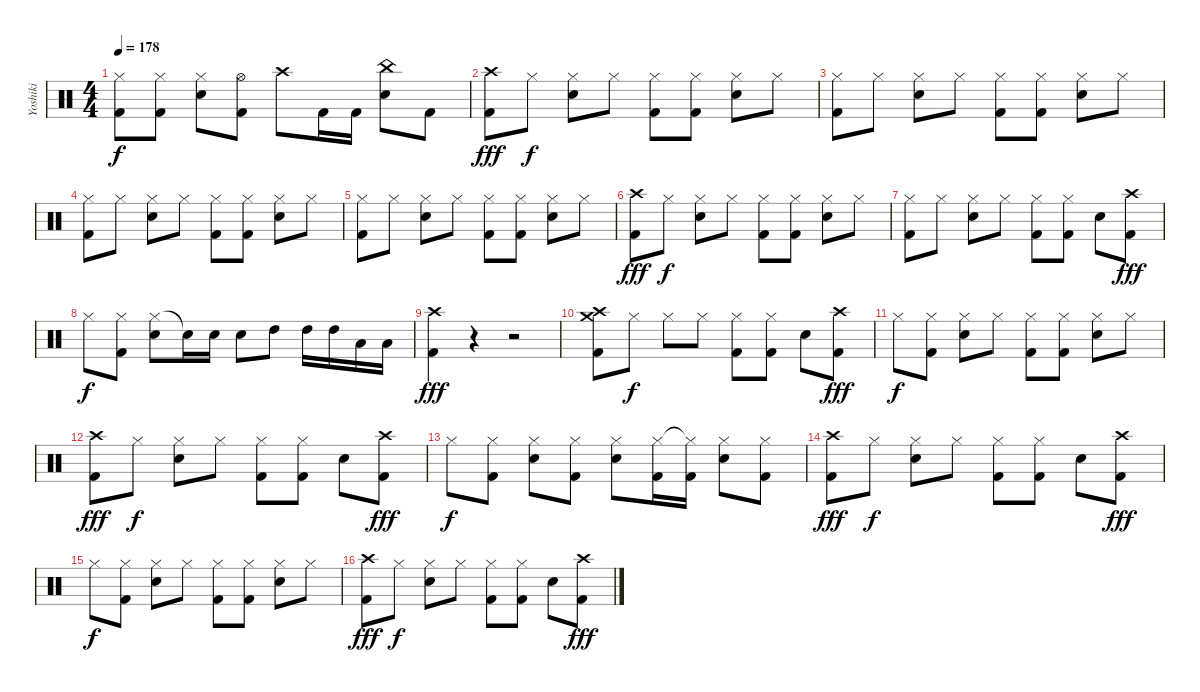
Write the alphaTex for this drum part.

\track ("Yoshiki" "Yoshiki") {instrument percussion}
\staff {score}
\articulation defaults
\ts (4 4)
\tempo 178
\clef neutral
\ks c
("Hi-Hat (closed)" "Kick (hit) 2").8{dy f} ("Hi-Hat (closed)" "Kick (hit) 2").8 ("Hi-Hat (closed)" "Snare (hit) 2").8 ("Hi-Hat (open)" "Kick (hit) 2").8 "Crash high (hit)".8 "Kick (hit) 2".16 "Kick (hit) 2".16 ("China (hit)" "Snare (hit) 2").8 "Kick (hit) 2".8 |
("Crash high (hit)" "Kick (hit) 2").8{dy fff} "Hi-Hat (closed)".8{dy f} ("Hi-Hat (closed)" "Snare (hit) 2").8 "Hi-Hat (closed)".8 ("Hi-Hat (closed)" "Kick (hit) 2").8 ("Hi-Hat (closed)" "Kick (hit) 2").8 ("Hi-Hat (closed)" "Snare (hit) 2").8 "Hi-Hat (closed)".8 |
("Hi-Hat (closed)" "Kick (hit) 2").8 "Hi-Hat (closed)".8 ("Hi-Hat (closed)" "Snare (hit) 2").8 "Hi-Hat (closed)".8 ("Hi-Hat (closed)" "Kick (hit) 2").8 ("Hi-Hat (closed)" "Kick (hit) 2").8 ("Hi-Hat (closed)" "Snare (hit) 2").8 "Hi-Hat (closed)".8 |
("Hi-Hat (closed)" "Kick (hit) 2").8 "Hi-Hat (closed)".8 ("Hi-Hat (closed)" "Snare (hit) 2").8 "Hi-Hat (closed)".8 ("Hi-Hat (closed)" "Kick (hit) 2").8 ("Hi-Hat (closed)" "Kick (hit) 2").8 ("Hi-Hat (closed)" "Snare (hit) 2").8 "Hi-Hat (closed)".8 |
("Hi-Hat (closed)" "Kick (hit) 2").8 "Hi-Hat (closed)".8 ("Hi-Hat (closed)" "Snare (hit) 2").8 "Hi-Hat (closed)".8 ("Hi-Hat (closed)" "Kick (hit) 2").8 ("Hi-Hat (closed)" "Kick (hit) 2").8 ("Hi-Hat (closed)" "Snare (hit) 2").8 "Hi-Hat (closed)".8 |
("Crash high (hit)" "Kick (hit) 2").8{dy fff} "Hi-Hat (closed)".8{dy f} ("Hi-Hat (closed)" "Snare (hit) 2").8 "Hi-Hat (closed)".8 ("Hi-Hat (closed)" "Kick (hit) 2").8 ("Hi-Hat (closed)" "Kick (hit) 2").8 ("Hi-Hat (closed)" "Snare (hit) 2").8 "Hi-Hat (closed)".8 |
("Hi-Hat (closed)" "Kick (hit) 2").8 "Hi-Hat (closed)".8 ("Hi-Hat (closed)" "Snare (hit) 2").8 "Hi-Hat (closed)".8 ("Hi-Hat (closed)" "Kick (hit) 2").8 ("Hi-Hat (closed)" "Kick (hit) 2").8 "Snare (hit) 2".8 ("Crash high (hit)" "Kick (hit) 2").8{dy fff} |
"Hi-Hat (closed)".8{dy f} ("Hi-Hat (closed)" "Kick (hit) 2").8 ("Hi-Hat (closed)" "Snare (hit) 2").8 "Snare (hit) 2"{t}.16 "Snare (hit) 2".16 "Snare (hit) 2".8 "High Tom (hit)".8 "High Tom (hit)".16 "High Tom (hit)".16 "Low Tom (hit)".16 "Low Tom (hit)".16 |
("Crash high (hit)" "Kick (hit) 2").4{dy fff} r.4 r.2 |
("Crash medium (hit)" "Crash high (hit)" "Kick (hit) 2").8 "Hi-Hat (closed)".8{dy f} "Hi-Hat (closed)".8 "Hi-Hat (closed)".8 ("Hi-Hat (closed)" "Kick (hit) 2").8 ("Hi-Hat (closed)" "Kick (hit) 2").8 "Snare (hit) 2".8 ("Crash high (hit)" "Kick (hit) 2").8{dy fff} |
"Hi-Hat (closed)".8{dy f} ("Hi-Hat (closed)" "Kick (hit) 2").8 ("Hi-Hat (closed)" "Snare (hit) 2").8 "Hi-Hat (closed)".8 ("Hi-Hat (closed)" "Kick (hit) 2").8 ("Hi-Hat (closed)" "Kick (hit) 2").8 ("Hi-Hat (closed)" "Snare (hit) 2").8 "Hi-Hat (closed)".8 |
("Crash high (hit)" "Kick (hit) 2").8{dy fff} "Hi-Hat (closed)".8{dy f} ("Hi-Hat (closed)" "Snare (hit) 2").8 "Hi-Hat (closed)".8 ("Hi-Hat (closed)" "Kick (hit) 2").8 ("Hi-Hat (closed)" "Kick (hit) 2").8 "Snare (hit) 2".8 ("Crash high (hit)" "Kick (hit) 2").8{dy fff} |
"Hi-Hat (closed)".8{dy f} ("Hi-Hat (closed)" "Kick (hit) 2").8 ("Hi-Hat (closed)" "Snare (hit) 2").8 ("Hi-Hat (closed)" "Kick (hit) 2").8 ("Hi-Hat (closed)" "Snare (hit) 2").8 ("Hi-Hat (closed)" "Kick (hit) 2").16 ("Hi-Hat (closed)"{t} "Kick (hit) 2").16 ("Hi-Hat (closed)" "Snare (hit) 2").8 ("Hi-Hat (closed)" "Kick (hit) 2").8 |
("Crash high (hit)" "Kick (hit) 2").8{dy fff} "Hi-Hat (closed)".8{dy f} ("Hi-Hat (closed)" "Snare (hit) 2").8 "Hi-Hat (closed)".8 ("Hi-Hat (closed)" "Kick (hit) 2").8 ("Hi-Hat (closed)" "Kick (hit) 2").8 "Snare (hit) 2".8 ("Crash high (hit)" "Kick (hit) 2").8{dy fff} |
"Hi-Hat (closed)".8{dy f} ("Hi-Hat (closed)" "Kick (hit) 2").8 ("Hi-Hat (closed)" "Snare (hit) 2").8 "Hi-Hat (closed)".8 ("Hi-Hat (closed)" "Kick (hit) 2").8 ("Hi-Hat (closed)" "Kick (hit) 2").8 ("Hi-Hat (closed)" "Snare (hit) 2").8 "Hi-Hat (closed)".8 |
("Crash high (hit)" "Kick (hit) 2").8{dy fff} "Hi-Hat (closed)".8{dy f} ("Hi-Hat (closed)" "Snare (hit) 2").8 "Hi-Hat (closed)".8 ("Hi-Hat (closed)" "Kick (hit) 2").8 ("Hi-Hat (closed)" "Kick (hit) 2").8 "Snare (hit) 2".8 ("Crash high (hit)" "Kick (hit) 2").8{dy fff}
